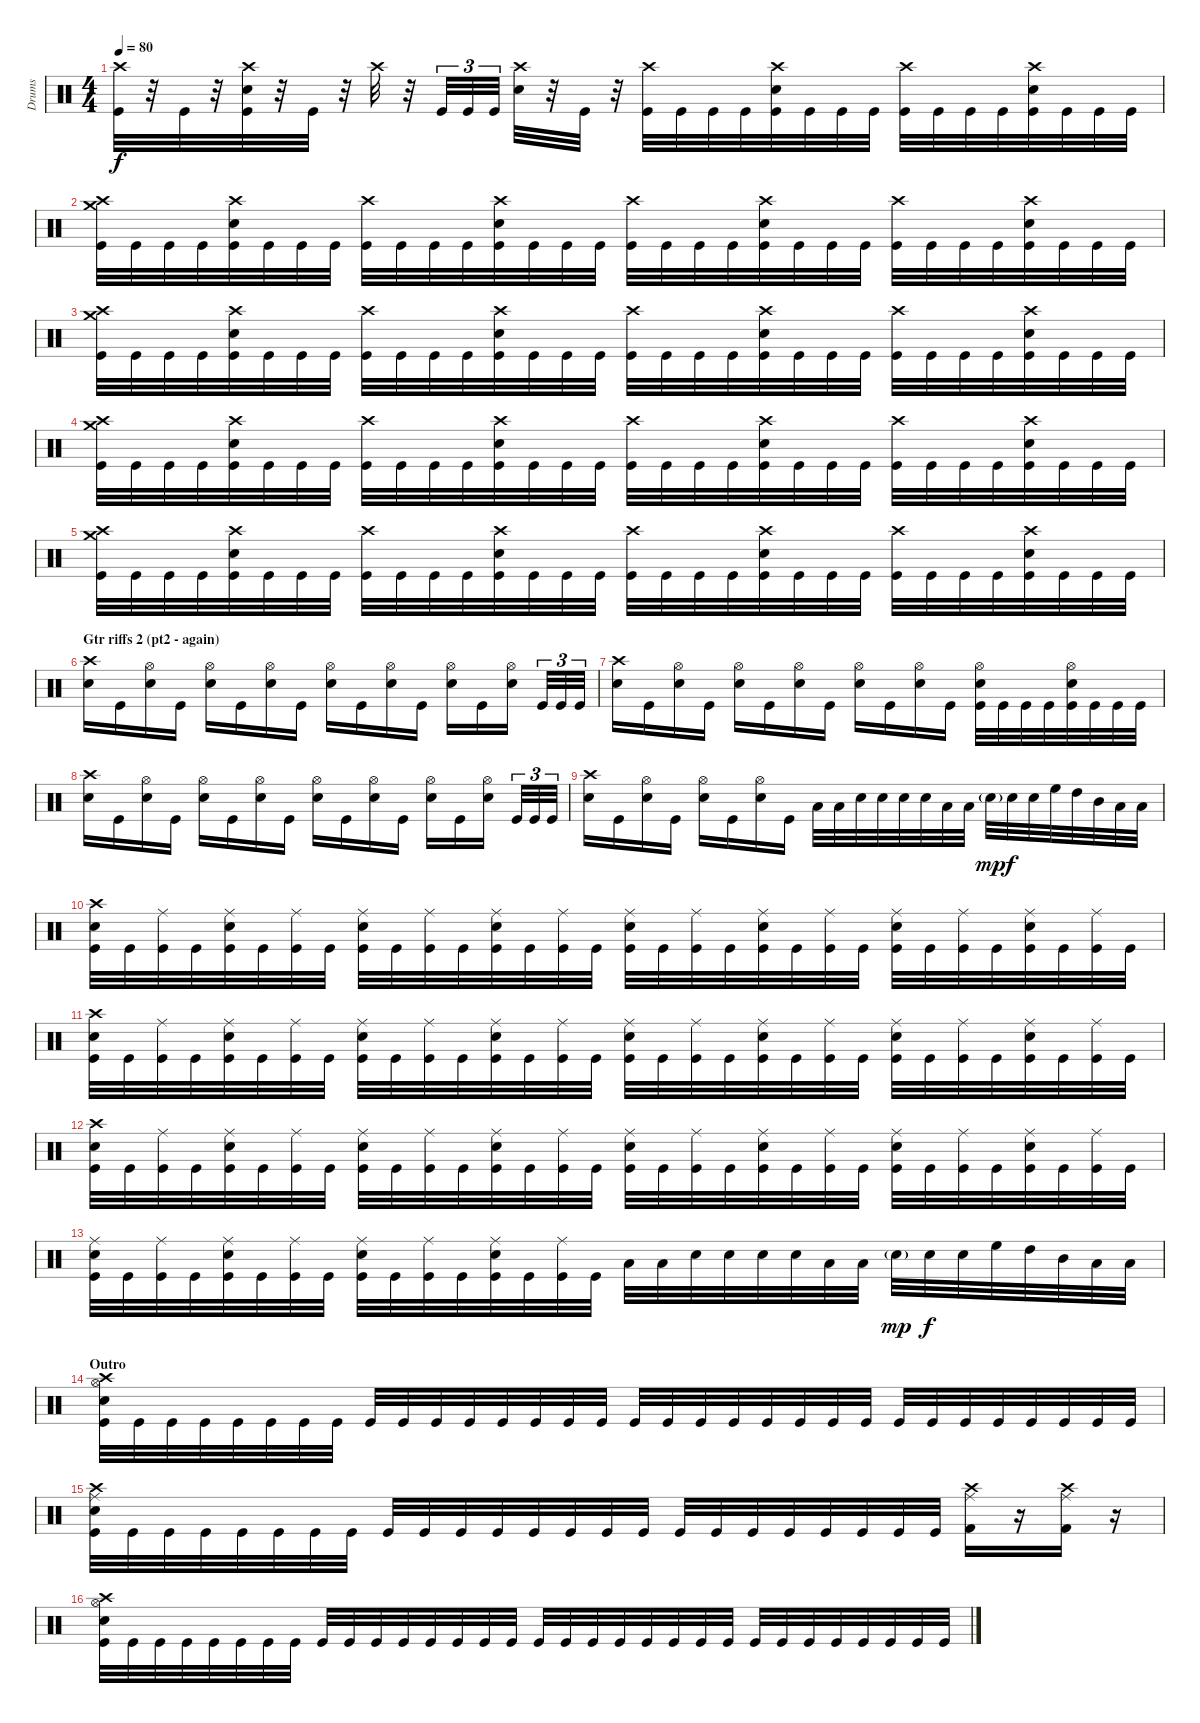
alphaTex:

\track ("Drums" "Drums") {instrument percussion}
\staff {score}
\articulation defaults
\ts (4 4)
\tempo 80
\clef neutral
\ks c
("Crash high (hit)" "Kick (hit)").32{dy f} r.32 "Kick (hit)".32 r.32 ("Crash high (hit)" "Electric Snare (hit)" "Kick (hit)").32 r.32 "Kick (hit)".32 r.32 "Crash high (hit)".32 r.32 "Kick (hit)".32{tu (3 2)} "Kick (hit)".32{tu (3 2)} "Kick (hit)".32{tu (3 2)} ("Crash high (hit)" "Electric Snare (hit)").32 r.32 "Kick (hit)".32 r.32 ("Crash high (hit)" "Kick (hit)").32 "Kick (hit)".32 "Kick (hit)".32 "Kick (hit)".32 ("Crash high (hit)" "Electric Snare (hit)" "Kick (hit)").32 "Kick (hit)".32 "Kick (hit)".32 "Kick (hit)".32 ("Crash high (hit)" "Kick (hit)").32 "Kick (hit)".32 "Kick (hit)".32 "Kick (hit)".32 ("Crash high (hit)" "Electric Snare (hit)" "Kick (hit)").32 "Kick (hit)".32 "Kick (hit)".32 "Kick (hit)".32 |
("Crash high (hit)" "Crash medium (hit)" "Kick (hit)").32 "Kick (hit)".32 "Kick (hit)".32 "Kick (hit)".32 ("Crash high (hit)" "Electric Snare (hit)" "Kick (hit)").32 "Kick (hit)".32 "Kick (hit)".32 "Kick (hit)".32 ("Crash high (hit)" "Kick (hit)").32 "Kick (hit)".32 "Kick (hit)".32 "Kick (hit)".32 ("Crash high (hit)" "Electric Snare (hit)" "Kick (hit)").32 "Kick (hit)".32 "Kick (hit)".32 "Kick (hit)".32 ("Crash high (hit)" "Kick (hit)").32 "Kick (hit)".32 "Kick (hit)".32 "Kick (hit)".32 ("Crash high (hit)" "Electric Snare (hit)" "Kick (hit)").32 "Kick (hit)".32 "Kick (hit)".32 "Kick (hit)".32 ("Crash high (hit)" "Kick (hit)").32 "Kick (hit)".32 "Kick (hit)".32 "Kick (hit)".32 ("Crash high (hit)" "Electric Snare (hit)" "Kick (hit)").32 "Kick (hit)".32 "Kick (hit)".32 "Kick (hit)".32 |
("Crash high (hit)" "Crash medium (hit)" "Kick (hit)").32 "Kick (hit)".32 "Kick (hit)".32 "Kick (hit)".32 ("Crash high (hit)" "Electric Snare (hit)" "Kick (hit)").32 "Kick (hit)".32 "Kick (hit)".32 "Kick (hit)".32 ("Crash high (hit)" "Kick (hit)").32 "Kick (hit)".32 "Kick (hit)".32 "Kick (hit)".32 ("Crash high (hit)" "Electric Snare (hit)" "Kick (hit)").32 "Kick (hit)".32 "Kick (hit)".32 "Kick (hit)".32 ("Crash high (hit)" "Kick (hit)").32 "Kick (hit)".32 "Kick (hit)".32 "Kick (hit)".32 ("Crash high (hit)" "Electric Snare (hit)" "Kick (hit)").32 "Kick (hit)".32 "Kick (hit)".32 "Kick (hit)".32 ("Crash high (hit)" "Kick (hit)").32 "Kick (hit)".32 "Kick (hit)".32 "Kick (hit)".32 ("Crash high (hit)" "Electric Snare (hit)" "Kick (hit)").32 "Kick (hit)".32 "Kick (hit)".32 "Kick (hit)".32 |
("Crash high (hit)" "Crash medium (hit)" "Kick (hit)").32 "Kick (hit)".32 "Kick (hit)".32 "Kick (hit)".32 ("Crash high (hit)" "Electric Snare (hit)" "Kick (hit)").32 "Kick (hit)".32 "Kick (hit)".32 "Kick (hit)".32 ("Crash high (hit)" "Kick (hit)").32 "Kick (hit)".32 "Kick (hit)".32 "Kick (hit)".32 ("Crash high (hit)" "Electric Snare (hit)" "Kick (hit)").32 "Kick (hit)".32 "Kick (hit)".32 "Kick (hit)".32 ("Crash high (hit)" "Kick (hit)").32 "Kick (hit)".32 "Kick (hit)".32 "Kick (hit)".32 ("Crash high (hit)" "Electric Snare (hit)" "Kick (hit)").32 "Kick (hit)".32 "Kick (hit)".32 "Kick (hit)".32 ("Crash high (hit)" "Kick (hit)").32 "Kick (hit)".32 "Kick (hit)".32 "Kick (hit)".32 ("Crash high (hit)" "Electric Snare (hit)" "Kick (hit)").32 "Kick (hit)".32 "Kick (hit)".32 "Kick (hit)".32 |
("Crash high (hit)" "Crash medium (hit)" "Kick (hit)").32 "Kick (hit)".32 "Kick (hit)".32 "Kick (hit)".32 ("Crash high (hit)" "Electric Snare (hit)" "Kick (hit)").32 "Kick (hit)".32 "Kick (hit)".32 "Kick (hit)".32 ("Crash high (hit)" "Kick (hit)").32 "Kick (hit)".32 "Kick (hit)".32 "Kick (hit)".32 ("Crash high (hit)" "Electric Snare (hit)" "Kick (hit)").32 "Kick (hit)".32 "Kick (hit)".32 "Kick (hit)".32 ("Crash high (hit)" "Kick (hit)").32 "Kick (hit)".32 "Kick (hit)".32 "Kick (hit)".32 ("Crash high (hit)" "Electric Snare (hit)" "Kick (hit)").32 "Kick (hit)".32 "Kick (hit)".32 "Kick (hit)".32 ("Crash high (hit)" "Kick (hit)").32 "Kick (hit)".32 "Kick (hit)".32 "Kick (hit)".32 ("Crash high (hit)" "Electric Snare (hit)" "Kick (hit)").32 "Kick (hit)".32 "Kick (hit)".32 "Kick (hit)".32 |
\section ("" "Gtr riffs 2 (pt2 - again)")
("Crash high (hit)" "Electric Snare (hit)").16 "Kick (hit)".16 ("Hi-Hat (open)" "Electric Snare (hit)").16 "Kick (hit)".16 ("Hi-Hat (open)" "Electric Snare (hit)").16 "Kick (hit)".16 ("Hi-Hat (open)" "Electric Snare (hit)").16 "Kick (hit)".16 ("Hi-Hat (open)" "Electric Snare (hit)").16 "Kick (hit)".16 ("Hi-Hat (open)" "Electric Snare (hit)").16 "Kick (hit)".16 ("Hi-Hat (open)" "Electric Snare (hit)").16 "Kick (hit)".16 ("Hi-Hat (open)" "Electric Snare (hit)").16 "Kick (hit)".32{tu (3 2)} "Kick (hit)".32{tu (3 2)} "Kick (hit)".32{tu (3 2)} |
("Crash high (hit)" "Electric Snare (hit)").16 "Kick (hit)".16 ("Hi-Hat (open)" "Electric Snare (hit)").16 "Kick (hit)".16 ("Hi-Hat (open)" "Electric Snare (hit)").16 "Kick (hit)".16 ("Hi-Hat (open)" "Electric Snare (hit)").16 "Kick (hit)".16 ("Hi-Hat (open)" "Electric Snare (hit)").16 "Kick (hit)".16 ("Hi-Hat (open)" "Electric Snare (hit)").16 "Kick (hit)".16 ("Hi-Hat (open)" "Electric Snare (hit)" "Kick (hit)").32 "Kick (hit)".32 "Kick (hit)".32 "Kick (hit)".32 ("Hi-Hat (open)" "Electric Snare (hit)" "Kick (hit)").32 "Kick (hit)".32 "Kick (hit)".32 "Kick (hit)".32 |
("Crash high (hit)" "Electric Snare (hit)").16 "Kick (hit)".16 ("Hi-Hat (open)" "Electric Snare (hit)").16 "Kick (hit)".16 ("Hi-Hat (open)" "Electric Snare (hit)").16 "Kick (hit)".16 ("Hi-Hat (open)" "Electric Snare (hit)").16 "Kick (hit)".16 ("Hi-Hat (open)" "Electric Snare (hit)").16 "Kick (hit)".16 ("Hi-Hat (open)" "Electric Snare (hit)").16 "Kick (hit)".16 ("Hi-Hat (open)" "Electric Snare (hit)").16 "Kick (hit)".16 ("Hi-Hat (open)" "Electric Snare (hit)").16 "Kick (hit)".32{tu (3 2)} "Kick (hit)".32{tu (3 2)} "Kick (hit)".32{tu (3 2)} |
("Crash high (hit)" "Electric Snare (hit)").16 "Kick (hit)".16 ("Hi-Hat (open)" "Electric Snare (hit)").16 "Kick (hit)".16 ("Hi-Hat (open)" "Electric Snare (hit)").16 "Kick (hit)".16 ("Hi-Hat (open)" "Electric Snare (hit)").16 "Kick (hit)".16 "Low Tom (hit)".32 "Low Tom (hit)".32 "Electric Snare (hit)".32 "Electric Snare (hit)".32 "Electric Snare (hit)".32 "Electric Snare (hit)".32 "Low Tom (hit)".32 "Low Tom (hit)".32 "Electric Snare (hit)"{g}.32{dy mp} "Electric Snare (hit)".32{dy f} "Electric Snare (hit)".32 "High Floor Tom (hit)".32 "High Tom (hit)".32 "Mid Tom (hit)".32 "Low Tom (hit)".32 "Low Floor Tom (hit)".32 |
("Crash high (hit)" "Electric Snare (hit)" "Kick (hit)").32 "Kick (hit)".32 ("Ride (middle)" "Kick (hit)").32 "Kick (hit)".32 ("Ride (middle)" "Electric Snare (hit)" "Kick (hit)").32 "Kick (hit)".32 ("Ride (middle)" "Kick (hit)").32 "Kick (hit)".32 ("Ride (middle)" "Electric Snare (hit)" "Kick (hit)").32 "Kick (hit)".32 ("Ride (middle)" "Kick (hit)").32 "Kick (hit)".32 ("Ride (middle)" "Electric Snare (hit)" "Kick (hit)").32 "Kick (hit)".32 ("Ride (middle)" "Kick (hit)").32 "Kick (hit)".32 ("Ride (middle)" "Electric Snare (hit)" "Kick (hit)").32 "Kick (hit)".32 ("Ride (middle)" "Kick (hit)").32 "Kick (hit)".32 ("Ride (middle)" "Electric Snare (hit)" "Kick (hit)").32 "Kick (hit)".32 ("Ride (middle)" "Kick (hit)").32 "Kick (hit)".32 ("Ride (middle)" "Electric Snare (hit)" "Kick (hit)").32 "Kick (hit)".32 ("Ride (middle)" "Kick (hit)").32 "Kick (hit)".32 ("Ride (middle)" "Electric Snare (hit)" "Kick (hit)").32 "Kick (hit)".32 ("Ride (middle)" "Kick (hit)").32 "Kick (hit)".32 |
("Crash high (hit)" "Electric Snare (hit)" "Kick (hit)").32 "Kick (hit)".32 ("Ride (middle)" "Kick (hit)").32 "Kick (hit)".32 ("Ride (middle)" "Electric Snare (hit)" "Kick (hit)").32 "Kick (hit)".32 ("Ride (middle)" "Kick (hit)").32 "Kick (hit)".32 ("Ride (middle)" "Electric Snare (hit)" "Kick (hit)").32 "Kick (hit)".32 ("Ride (middle)" "Kick (hit)").32 "Kick (hit)".32 ("Ride (middle)" "Electric Snare (hit)" "Kick (hit)").32 "Kick (hit)".32 ("Ride (middle)" "Kick (hit)").32 "Kick (hit)".32 ("Ride (middle)" "Electric Snare (hit)" "Kick (hit)").32 "Kick (hit)".32 ("Ride (middle)" "Kick (hit)").32 "Kick (hit)".32 ("Ride (middle)" "Electric Snare (hit)" "Kick (hit)").32 "Kick (hit)".32 ("Ride (middle)" "Kick (hit)").32 "Kick (hit)".32 ("Ride (middle)" "Electric Snare (hit)" "Kick (hit)").32 "Kick (hit)".32 ("Ride (middle)" "Kick (hit)").32 "Kick (hit)".32 ("Ride (middle)" "Electric Snare (hit)" "Kick (hit)").32 "Kick (hit)".32 ("Ride (middle)" "Kick (hit)").32 "Kick (hit)".32 |
("Crash high (hit)" "Electric Snare (hit)" "Kick (hit)").32 "Kick (hit)".32 ("Ride (middle)" "Kick (hit)").32 "Kick (hit)".32 ("Ride (middle)" "Electric Snare (hit)" "Kick (hit)").32 "Kick (hit)".32 ("Ride (middle)" "Kick (hit)").32 "Kick (hit)".32 ("Ride (middle)" "Electric Snare (hit)" "Kick (hit)").32 "Kick (hit)".32 ("Ride (middle)" "Kick (hit)").32 "Kick (hit)".32 ("Ride (middle)" "Electric Snare (hit)" "Kick (hit)").32 "Kick (hit)".32 ("Ride (middle)" "Kick (hit)").32 "Kick (hit)".32 ("Ride (middle)" "Electric Snare (hit)" "Kick (hit)").32 "Kick (hit)".32 ("Ride (middle)" "Kick (hit)").32 "Kick (hit)".32 ("Ride (middle)" "Electric Snare (hit)" "Kick (hit)").32 "Kick (hit)".32 ("Ride (middle)" "Kick (hit)").32 "Kick (hit)".32 ("Ride (middle)" "Electric Snare (hit)" "Kick (hit)").32 "Kick (hit)".32 ("Ride (middle)" "Kick (hit)").32 "Kick (hit)".32 ("Ride (middle)" "Electric Snare (hit)" "Kick (hit)").32 "Kick (hit)".32 ("Ride (middle)" "Kick (hit)").32 "Kick (hit)".32 |
("Ride (middle)" "Electric Snare (hit)" "Kick (hit)").32 "Kick (hit)".32 ("Ride (middle)" "Kick (hit)").32 "Kick (hit)".32 ("Ride (middle)" "Electric Snare (hit)" "Kick (hit)").32 "Kick (hit)".32 ("Ride (middle)" "Kick (hit)").32 "Kick (hit)".32 ("Ride (middle)" "Electric Snare (hit)" "Kick (hit)").32 "Kick (hit)".32 ("Ride (middle)" "Kick (hit)").32 "Kick (hit)".32 ("Ride (middle)" "Electric Snare (hit)" "Kick (hit)").32 "Kick (hit)".32 ("Ride (middle)" "Kick (hit)").32 "Kick (hit)".32 "Low Tom (hit)".32 "Low Tom (hit)".32 "Electric Snare (hit)".32 "Electric Snare (hit)".32 "Electric Snare (hit)".32 "Electric Snare (hit)".32 "Low Tom (hit)".32 "Low Tom (hit)".32 "Electric Snare (hit)"{g}.32{dy mp} "Electric Snare (hit)".32{dy f} "Electric Snare (hit)".32 "High Floor Tom (hit)".32 "High Tom (hit)".32 "Mid Tom (hit)".32 "Low Tom (hit)".32 "Low Floor Tom (hit)".32 |
\section ("" "Outro ")
("Crash high (hit)" "Hi-Hat (open)" "Electric Snare (hit)" "Kick (hit)").32 "Kick (hit)".32 "Kick (hit)".32 "Kick (hit)".32 "Kick (hit)".32 "Kick (hit)".32 "Kick (hit)".32 "Kick (hit)".32 "Kick (hit)".32 "Kick (hit)".32 "Kick (hit)".32 "Kick (hit)".32 "Kick (hit)".32 "Kick (hit)".32 "Kick (hit)".32 "Kick (hit)".32 "Kick (hit)".32 "Kick (hit)".32 "Kick (hit)".32 "Kick (hit)".32 "Kick (hit)".32 "Kick (hit)".32 "Kick (hit)".32 "Kick (hit)".32 "Kick (hit)".32 "Kick (hit)".32 "Kick (hit)".32 "Kick (hit)".32 "Kick (hit)".32 "Kick (hit)".32 "Kick (hit)".32 "Kick (hit)".32 |
("Crash high (hit)" "Ride (middle)" "Electric Snare (hit)" "Kick (hit)").32 "Kick (hit)".32 "Kick (hit)".32 "Kick (hit)".32 "Kick (hit)".32 "Kick (hit)".32 "Kick (hit)".32 "Kick (hit)".32 "Kick (hit)".32 "Kick (hit)".32 "Kick (hit)".32 "Kick (hit)".32 "Kick (hit)".32 "Kick (hit)".32 "Kick (hit)".32 "Kick (hit)".32 "Kick (hit)".32 "Kick (hit)".32 "Kick (hit)".32 "Kick (hit)".32 "Kick (hit)".32 "Kick (hit)".32 "Kick (hit)".32 "Kick (hit)".32 ("Crash high (hit)" "Ride (middle)" "Kick (hit) 2").16 r.16 ("Crash high (hit)" "Ride (middle)" "Kick (hit) 2").16 r.16 |
("Crash high (hit)" "Hi-Hat (open)" "Electric Snare (hit)" "Kick (hit)").32 "Kick (hit)".32 "Kick (hit)".32 "Kick (hit)".32 "Kick (hit)".32 "Kick (hit)".32 "Kick (hit)".32 "Kick (hit)".32 "Kick (hit)".32 "Kick (hit)".32 "Kick (hit)".32 "Kick (hit)".32 "Kick (hit)".32 "Kick (hit)".32 "Kick (hit)".32 "Kick (hit)".32 "Kick (hit)".32 "Kick (hit)".32 "Kick (hit)".32 "Kick (hit)".32 "Kick (hit)".32 "Kick (hit)".32 "Kick (hit)".32 "Kick (hit)".32 "Kick (hit)".32 "Kick (hit)".32 "Kick (hit)".32 "Kick (hit)".32 "Kick (hit)".32 "Kick (hit)".32 "Kick (hit)".32 "Kick (hit)".32
